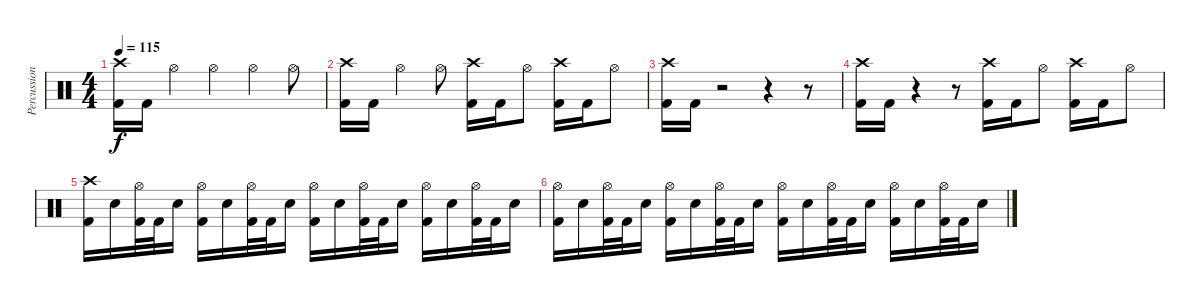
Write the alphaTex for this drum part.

\track ("Percussion" "Percussion") {instrument percussion}
\staff {score}
\articulation defaults
\ts (4 4)
\tempo 115
\clef neutral
\ks c
("Crash high (hit)" "Kick (hit) 2").16{dy f} "Kick (hit) 2".16 "Hi-Hat (open)".4 "Hi-Hat (open)".4 "Hi-Hat (open)".4 "Hi-Hat (open)".8 |
("Crash high (hit)" "Kick (hit) 2").16 "Kick (hit) 2".16 "Hi-Hat (open)".4 "Hi-Hat (open)".8 ("Crash high (hit)" "Kick (hit) 2").16 "Kick (hit) 2".16 "Hi-Hat (open)".8 ("Crash high (hit)" "Kick (hit) 2").16 "Kick (hit) 2".16 "Hi-Hat (open)".8 |
("Crash high (hit)" "Kick (hit) 2").16 "Kick (hit) 2".16 r.2 r.4 r.8 |
("Crash high (hit)" "Kick (hit) 2").16 "Kick (hit) 2".16 r.4 r.8 ("Crash high (hit)" "Kick (hit) 2").16 "Kick (hit) 2".16 "Hi-Hat (open)".8 ("Crash high (hit)" "Kick (hit) 2").16 "Kick (hit) 2".16 "Hi-Hat (open)".8 |
("Crash high (hit)" "Kick (hit) 2").16 "Snare (hit) 2".16 ("Hi-Hat (open)" "Kick (hit) 2").32 "Kick (hit) 2".32 "Snare (hit) 2".16 ("Hi-Hat (open)" "Kick (hit) 2").16 "Snare (hit) 2".16 ("Hi-Hat (open)" "Kick (hit) 2").32 "Kick (hit) 2".32 "Snare (hit) 2".16 ("Hi-Hat (open)" "Kick (hit) 2").16 "Snare (hit) 2".16 ("Hi-Hat (open)" "Kick (hit) 2").32 "Kick (hit) 2".32 "Snare (hit) 2".16 ("Hi-Hat (open)" "Kick (hit) 2").16 "Snare (hit) 2".16 ("Hi-Hat (open)" "Kick (hit) 2").32 "Kick (hit) 2".32 "Snare (hit) 2".16 |
("Hi-Hat (open)" "Kick (hit) 2").16 "Snare (hit) 2".16 ("Hi-Hat (open)" "Kick (hit) 2").32 "Kick (hit) 2".32 "Snare (hit) 2".16 ("Hi-Hat (open)" "Kick (hit) 2").16 "Snare (hit) 2".16 ("Hi-Hat (open)" "Kick (hit) 2").32 "Kick (hit) 2".32 "Snare (hit) 2".16 ("Hi-Hat (open)" "Kick (hit) 2").16 "Snare (hit) 2".16 ("Hi-Hat (open)" "Kick (hit) 2").32 "Kick (hit) 2".32 "Snare (hit) 2".16 ("Hi-Hat (open)" "Kick (hit) 2").16 "Snare (hit) 2".16 ("Hi-Hat (open)" "Kick (hit) 2").32 "Kick (hit) 2".32 "Snare (hit) 2".16
